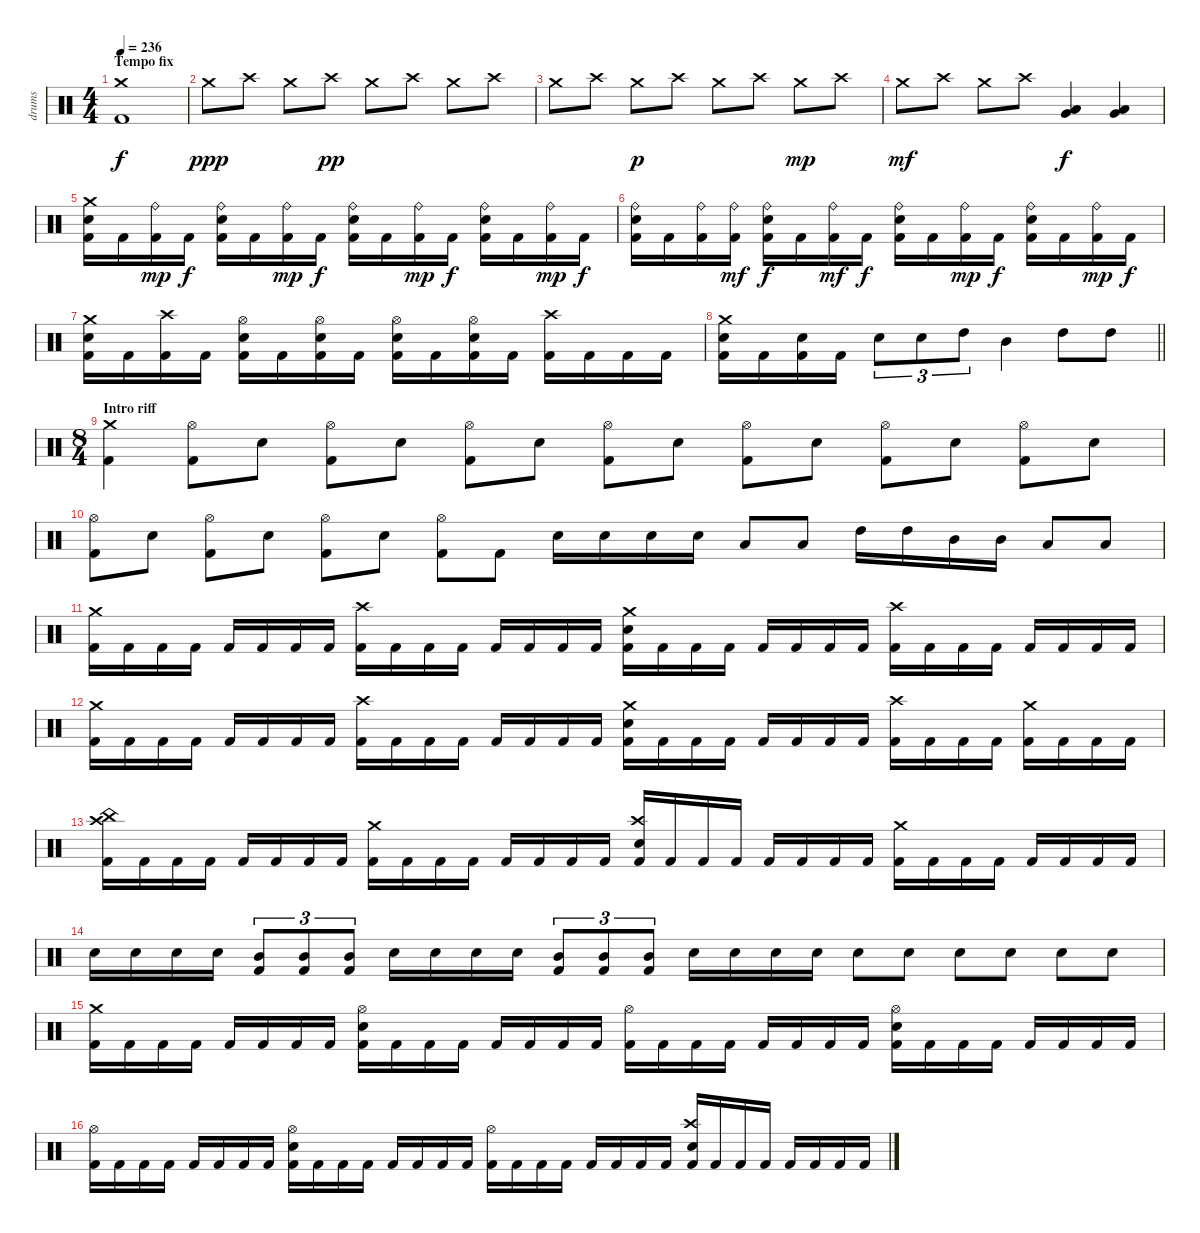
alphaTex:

\track ("drums" "drums") {instrument percussion}
\staff {score}
\articulation defaults
\ts (4 4)
\section ("" "Tempo fix")
\tempo 236
\clef neutral
\ks c
("Crash medium (hit)" "Kick (hit) 2").1{dy f} |
"Crash medium (hit)".8{dy ppp} "Crash high (hit)".8 "Crash medium (hit)".8 "Crash high (hit)".8{dy pp} "Crash medium (hit)".8 "Crash high (hit)".8 "Crash medium (hit)".8 "Crash high (hit)".8 |
"Crash medium (hit)".8 "Crash high (hit)".8 "Crash medium (hit)".8{dy p} "Crash high (hit)".8 "Crash medium (hit)".8 "Crash high (hit)".8 "Crash medium (hit)".8{dy mp} "Crash high (hit)".8 |
"Crash medium (hit)".8{dy mf} "Crash high (hit)".8 "Crash medium (hit)".8 "Crash high (hit)".8 ("Low Tom (hit)" "Very Low Tom (hit)").4{dy f} ("Low Tom (hit)" "Very Low Tom (hit)").4 |
("Crash medium (hit)" "Electric Snare (hit)" "Kick (hit) 2").16 "Kick (hit) 2".16 ("Ride (bell)" "Kick (hit) 2").16{dy mp} "Kick (hit) 2".16{dy f} ("Ride (bell)" "Electric Snare (hit)" "Kick (hit) 2").16 "Kick (hit) 2".16 ("Ride (bell)" "Kick (hit) 2").16{dy mp} "Kick (hit) 2".16{dy f} ("Ride (bell)" "Electric Snare (hit)" "Kick (hit) 2").16 "Kick (hit) 2".16 ("Ride (bell)" "Kick (hit) 2").16{dy mp} "Kick (hit) 2".16{dy f} ("Ride (bell)" "Electric Snare (hit)" "Kick (hit) 2").16 "Kick (hit) 2".16 ("Ride (bell)" "Kick (hit) 2").16{dy mp} "Kick (hit) 2".16{dy f} |
("Ride (bell)" "Electric Snare (hit)" "Kick (hit) 2").16 "Kick (hit) 2".16 ("Ride (bell)" "Kick (hit) 2").16 ("Ride (bell)" "Kick (hit) 2").16{dy mf} ("Ride (bell)" "Electric Snare (hit)" "Kick (hit) 2").16{dy f} "Kick (hit) 2".16 ("Ride (bell)" "Kick (hit) 2").16{dy mf} "Kick (hit) 2".16{dy f} ("Ride (bell)" "Electric Snare (hit)" "Kick (hit) 2").16 "Kick (hit) 2".16 ("Ride (bell)" "Kick (hit) 2").16{dy mp} "Kick (hit) 2".16{dy f} ("Ride (bell)" "Electric Snare (hit)" "Kick (hit) 2").16 "Kick (hit) 2".16 ("Ride (bell)" "Kick (hit) 2").16{dy mp} "Kick (hit) 2".16{dy f} |
("Crash medium (hit)" "Electric Snare (hit)" "Kick (hit) 2").16 "Kick (hit) 2".16 ("Crash high (hit)" "Kick (hit) 2").16 "Kick (hit) 2".16 ("Hi-Hat (open)" "Electric Snare (hit)" "Kick (hit) 2").16 "Kick (hit) 2".16 ("Hi-Hat (open)" "Electric Snare (hit)" "Kick (hit) 2").16 "Kick (hit) 2".16 ("Hi-Hat (open)" "Electric Snare (hit)" "Kick (hit) 2").16 "Kick (hit) 2".16 ("Hi-Hat (open)" "Electric Snare (hit)" "Kick (hit) 2").16 "Kick (hit) 2".16 ("Crash high (hit)" "Kick (hit) 2").16 "Kick (hit) 2".16 "Kick (hit) 2".16 "Kick (hit) 2".16 |
\barLineRight lightlight
("Crash medium (hit)" "Electric Snare (hit)" "Kick (hit) 2").16 "Kick (hit) 2".16 ("Electric Snare (hit)" "Kick (hit) 2").16 "Kick (hit) 2".16 "Electric Snare (hit)".8{tu (3 2)} "Electric Snare (hit)".8{tu (3 2)} "High Tom (hit)".8{tu (3 2)} "Mid Tom (hit)".4 "High Tom (hit)".8 "High Tom (hit)".8 |
\ts (8 4)
\section ("" "Intro riff")
("Crash medium (hit)" "Kick (hit) 2").4 ("Hi-Hat (open)" "Kick (hit) 2").8 "Electric Snare (hit)".8 ("Hi-Hat (open)" "Kick (hit) 2").8 "Electric Snare (hit)".8 ("Hi-Hat (open)" "Kick (hit) 2").8 "Electric Snare (hit)".8 ("Hi-Hat (open)" "Kick (hit) 2").8 "Electric Snare (hit)".8 ("Hi-Hat (open)" "Kick (hit) 2").8 "Electric Snare (hit)".8 ("Hi-Hat (open)" "Kick (hit) 2").8 "Electric Snare (hit)".8 ("Hi-Hat (open)" "Kick (hit) 2").8 "Electric Snare (hit)".8 |
("Hi-Hat (open)" "Kick (hit) 2").8 "Electric Snare (hit)".8 ("Hi-Hat (open)" "Kick (hit) 2").8 "Electric Snare (hit)".8 ("Hi-Hat (open)" "Kick (hit) 2").8 "Electric Snare (hit)".8 ("Hi-Hat (open)" "Kick (hit) 2").8 "Kick (hit) 2".8 "Electric Snare (hit)".16 "Electric Snare (hit)".16 "Electric Snare (hit)".16 "Electric Snare (hit)".16 "Low Tom (hit)".8 "Low Tom (hit)".8 "High Tom (hit)".16 "High Tom (hit)".16 "Mid Tom (hit)".16 "Mid Tom (hit)".16 "Low Tom (hit)".8 "Low Tom (hit)".8 |
("Crash medium (hit)" "Kick (hit) 2").16 "Kick (hit) 2".16 "Kick (hit) 2".16 "Kick (hit) 2".16 "Kick (hit) 2".16 "Kick (hit) 2".16 "Kick (hit) 2".16 "Kick (hit) 2".16 ("Crash high (hit)" "Kick (hit) 2").16 "Kick (hit) 2".16 "Kick (hit) 2".16 "Kick (hit) 2".16 "Kick (hit) 2".16 "Kick (hit) 2".16 "Kick (hit) 2".16 "Kick (hit) 2".16 ("Crash medium (hit)" "Electric Snare (hit)" "Kick (hit) 2").16 "Kick (hit) 2".16 "Kick (hit) 2".16 "Kick (hit) 2".16 "Kick (hit) 2".16 "Kick (hit) 2".16 "Kick (hit) 2".16 "Kick (hit) 2".16 ("Crash high (hit)" "Kick (hit) 2").16 "Kick (hit) 2".16 "Kick (hit) 2".16 "Kick (hit) 2".16 "Kick (hit) 2".16 "Kick (hit) 2".16 "Kick (hit) 2".16 "Kick (hit) 2".16 |
("Crash medium (hit)" "Kick (hit) 2").16 "Kick (hit) 2".16 "Kick (hit) 2".16 "Kick (hit) 2".16 "Kick (hit) 2".16 "Kick (hit) 2".16 "Kick (hit) 2".16 "Kick (hit) 2".16 ("Crash high (hit)" "Kick (hit) 2").16 "Kick (hit) 2".16 "Kick (hit) 2".16 "Kick (hit) 2".16 "Kick (hit) 2".16 "Kick (hit) 2".16 "Kick (hit) 2".16 "Kick (hit) 2".16 ("Crash medium (hit)" "Electric Snare (hit)" "Kick (hit) 2").16 "Kick (hit) 2".16 "Kick (hit) 2".16 "Kick (hit) 2".16 "Kick (hit) 2".16 "Kick (hit) 2".16 "Kick (hit) 2".16 "Kick (hit) 2".16 ("Crash high (hit)" "Kick (hit) 2").16 "Kick (hit) 2".16 "Kick (hit) 2".16 "Kick (hit) 2".16 ("Crash medium (hit)" "Kick (hit) 2").16 "Kick (hit) 2".16 "Kick (hit) 2".16 "Kick (hit) 2".16 |
("China (hit)" "Crash high (hit)" "Kick (hit) 2").16 "Kick (hit) 2".16 "Kick (hit) 2".16 "Kick (hit) 2".16 "Kick (hit) 2".16 "Kick (hit) 2".16 "Kick (hit) 2".16 "Kick (hit) 2".16 ("Crash medium (hit)" "Kick (hit) 2").16 "Kick (hit) 2".16 "Kick (hit) 2".16 "Kick (hit) 2".16 "Kick (hit) 2".16 "Kick (hit) 2".16 "Kick (hit) 2".16 "Kick (hit) 2".16 ("Crash high (hit)" "Electric Snare (hit)" "Kick (hit) 2").16 "Kick (hit) 2".16 "Kick (hit) 2".16 "Kick (hit) 2".16 "Kick (hit) 2".16 "Kick (hit) 2".16 "Kick (hit) 2".16 "Kick (hit) 2".16 ("Crash medium (hit)" "Kick (hit) 2").16 "Kick (hit) 2".16 "Kick (hit) 2".16 "Kick (hit) 2".16 "Kick (hit) 2".16 "Kick (hit) 2".16 "Kick (hit) 2".16 "Kick (hit) 2".16 |
"Electric Snare (hit)".16 "Electric Snare (hit)".16 "Electric Snare (hit)".16 "Electric Snare (hit)".16 ("Mid Tom (hit)" "Kick (hit) 2").8{tu (3 2)} ("Mid Tom (hit)" "Kick (hit) 2").8{tu (3 2)} ("Mid Tom (hit)" "Kick (hit) 2").8{tu (3 2)} "Electric Snare (hit)".16 "Electric Snare (hit)".16 "Electric Snare (hit)".16 "Electric Snare (hit)".16 ("Mid Tom (hit)" "Kick (hit) 2").8{tu (3 2)} ("Mid Tom (hit)" "Kick (hit) 2").8{tu (3 2)} ("Mid Tom (hit)" "Kick (hit) 2").8{tu (3 2)} "Electric Snare (hit)".16 "Electric Snare (hit)".16 "Electric Snare (hit)".16 "Electric Snare (hit)".16 "Electric Snare (hit)".8 "Electric Snare (hit)".8 "Electric Snare (hit)".8 "Electric Snare (hit)".8 "Electric Snare (hit)".8 "Electric Snare (hit)".8 |
("Crash medium (hit)" "Kick (hit) 2").16 "Kick (hit) 2".16 "Kick (hit) 2".16 "Kick (hit) 2".16 "Kick (hit) 2".16 "Kick (hit) 2".16 "Kick (hit) 2".16 "Kick (hit) 2".16 ("Hi-Hat (open)" "Electric Snare (hit)" "Kick (hit) 2").16 "Kick (hit) 2".16 "Kick (hit) 2".16 "Kick (hit) 2".16 "Kick (hit) 2".16 "Kick (hit) 2".16 "Kick (hit) 2".16 "Kick (hit) 2".16 ("Hi-Hat (open)" "Kick (hit) 2").16 "Kick (hit) 2".16 "Kick (hit) 2".16 "Kick (hit) 2".16 "Kick (hit) 2".16 "Kick (hit) 2".16 "Kick (hit) 2".16 "Kick (hit) 2".16 ("Hi-Hat (open)" "Electric Snare (hit)" "Kick (hit) 2").16 "Kick (hit) 2".16 "Kick (hit) 2".16 "Kick (hit) 2".16 "Kick (hit) 2".16 "Kick (hit) 2".16 "Kick (hit) 2".16 "Kick (hit) 2".16 |
("Hi-Hat (open)" "Kick (hit) 2").16 "Kick (hit) 2".16 "Kick (hit) 2".16 "Kick (hit) 2".16 "Kick (hit) 2".16 "Kick (hit) 2".16 "Kick (hit) 2".16 "Kick (hit) 2".16 ("Hi-Hat (open)" "Electric Snare (hit)" "Kick (hit) 2").16 "Kick (hit) 2".16 "Kick (hit) 2".16 "Kick (hit) 2".16 "Kick (hit) 2".16 "Kick (hit) 2".16 "Kick (hit) 2".16 "Kick (hit) 2".16 ("Hi-Hat (open)" "Kick (hit) 2").16 "Kick (hit) 2".16 "Kick (hit) 2".16 "Kick (hit) 2".16 "Kick (hit) 2".16 "Kick (hit) 2".16 "Kick (hit) 2".16 "Kick (hit) 2".16 ("Crash high (hit)" "Electric Snare (hit)" "Kick (hit) 2").16 "Kick (hit) 2".16 "Kick (hit) 2".16 "Kick (hit) 2".16 "Kick (hit) 2".16 "Kick (hit) 2".16 "Kick (hit) 2".16 "Kick (hit) 2".16
